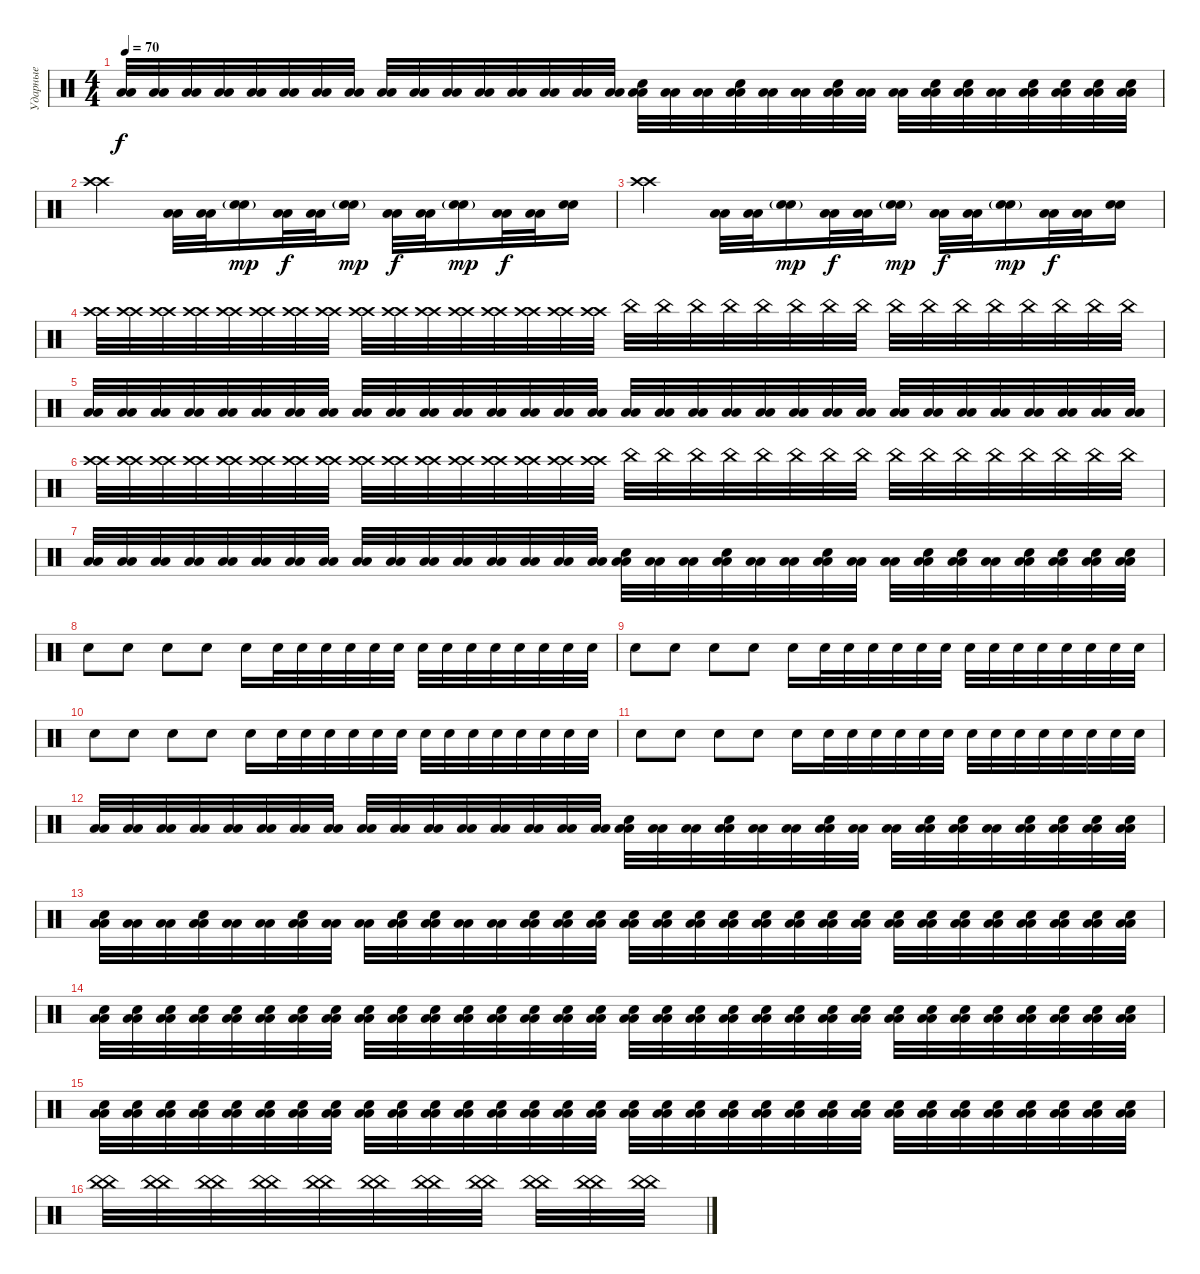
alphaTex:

\track ("Ударные" "Ударные") {instrument percussion}
\staff {score}
\articulation defaults
\ts (4 4)
\tempo 70
\clef neutral
\ks c
("Low Floor Tom (hit)" "Low Floor Tom (hit)").32{dy f} ("Low Floor Tom (hit)" "Low Floor Tom (hit)").32 ("Low Floor Tom (hit)" "Low Floor Tom (hit)").32 ("Low Floor Tom (hit)" "Low Floor Tom (hit)").32 ("Low Floor Tom (hit)" "Low Floor Tom (hit)").32 ("Low Floor Tom (hit)" "Low Floor Tom (hit)").32 ("Low Floor Tom (hit)" "Low Floor Tom (hit)").32 ("Low Floor Tom (hit)" "Low Floor Tom (hit)").32 ("Low Floor Tom (hit)" "Low Floor Tom (hit)").32 ("Low Floor Tom (hit)" "Low Floor Tom (hit)").32 ("Low Floor Tom (hit)" "Low Floor Tom (hit)").32 ("Low Floor Tom (hit)" "Low Floor Tom (hit)").32 ("Low Floor Tom (hit)" "Low Floor Tom (hit)").32 ("Low Floor Tom (hit)" "Low Floor Tom (hit)").32 ("Low Floor Tom (hit)" "Low Floor Tom (hit)").32 ("Low Floor Tom (hit)" "Low Floor Tom (hit)").32 ("Low Floor Tom (hit)" "Low Floor Tom (hit)" "Electric Snare (hit)").32 ("Low Floor Tom (hit)" "Low Floor Tom (hit)").32 ("Low Floor Tom (hit)" "Low Floor Tom (hit)").32 ("Low Floor Tom (hit)" "Low Floor Tom (hit)" "Electric Snare (hit)").32 ("Low Floor Tom (hit)" "Low Floor Tom (hit)").32 ("Low Floor Tom (hit)" "Low Floor Tom (hit)").32 ("Low Floor Tom (hit)" "Low Floor Tom (hit)" "Electric Snare (hit)").32 ("Low Floor Tom (hit)" "Low Floor Tom (hit)").32 ("Low Floor Tom (hit)" "Low Floor Tom (hit)").32 ("Low Floor Tom (hit)" "Low Floor Tom (hit)" "Electric Snare (hit)").32 ("Low Floor Tom (hit)" "Low Floor Tom (hit)" "Electric Snare (hit)").32 ("Low Floor Tom (hit)" "Low Floor Tom (hit)").32 ("Low Floor Tom (hit)" "Low Floor Tom (hit)" "Electric Snare (hit)").32 ("Low Floor Tom (hit)" "Low Floor Tom (hit)" "Electric Snare (hit)").32 ("Low Floor Tom (hit)" "Low Floor Tom (hit)" "Electric Snare (hit)").32 ("Low Floor Tom (hit)" "Low Floor Tom (hit)" "Electric Snare (hit)").32 |
("Crash high (hit)" "Crash high (hit)").2 ("Low Floor Tom (hit)" "Low Floor Tom (hit)").32 ("Low Floor Tom (hit)" "Low Floor Tom (hit)").32 ("Electric Snare (hit)"{g} "Electric Snare (hit)"{g}).16{dy mp} ("Low Floor Tom (hit)" "Low Floor Tom (hit)").32{dy f} ("Low Floor Tom (hit)" "Low Floor Tom (hit)").32 ("Electric Snare (hit)"{g} "Electric Snare (hit)"{g}).16{dy mp} ("Low Floor Tom (hit)" "Low Floor Tom (hit)").32{dy f} ("Low Floor Tom (hit)" "Low Floor Tom (hit)").32 ("Electric Snare (hit)"{g} "Electric Snare (hit)"{g}).16{dy mp} ("Low Floor Tom (hit)" "Low Floor Tom (hit)").32{dy f} ("Low Floor Tom (hit)" "Low Floor Tom (hit)").32 ("Electric Snare (hit)" "Electric Snare (hit)").16 |
("Crash high (hit)" "Crash high (hit)").2 ("Low Floor Tom (hit)" "Low Floor Tom (hit)").32 ("Low Floor Tom (hit)" "Low Floor Tom (hit)").32 ("Electric Snare (hit)"{g} "Electric Snare (hit)"{g}).16{dy mp} ("Low Floor Tom (hit)" "Low Floor Tom (hit)").32{dy f} ("Low Floor Tom (hit)" "Low Floor Tom (hit)").32 ("Electric Snare (hit)"{g} "Electric Snare (hit)"{g}).16{dy mp} ("Low Floor Tom (hit)" "Low Floor Tom (hit)").32{dy f} ("Low Floor Tom (hit)" "Low Floor Tom (hit)").32 ("Electric Snare (hit)"{g} "Electric Snare (hit)"{g}).16{dy mp} ("Low Floor Tom (hit)" "Low Floor Tom (hit)").32{dy f} ("Low Floor Tom (hit)" "Low Floor Tom (hit)").32 ("Electric Snare (hit)" "Electric Snare (hit)").16 |
("Crash high (hit)" "Crash high (hit)").32 ("Crash high (hit)" "Crash high (hit)").32 ("Crash high (hit)" "Crash high (hit)").32 ("Crash high (hit)" "Crash high (hit)").32 ("Crash high (hit)" "Crash high (hit)").32 ("Crash high (hit)" "Crash high (hit)").32 ("Crash high (hit)" "Crash high (hit)").32 ("Crash high (hit)" "Crash high (hit)").32 ("Crash high (hit)" "Crash high (hit)").32 ("Crash high (hit)" "Crash high (hit)").32 ("Crash high (hit)" "Crash high (hit)").32 ("Crash high (hit)" "Crash high (hit)").32 ("Crash high (hit)" "Crash high (hit)").32 ("Crash high (hit)" "Crash high (hit)").32 ("Crash high (hit)" "Crash high (hit)").32 ("Crash high (hit)" "Crash high (hit)").32 "China (hit)".32 "China (hit)".32 "China (hit)".32 "China (hit)".32 "China (hit)".32 "China (hit)".32 "China (hit)".32 "China (hit)".32 "China (hit)".32 "China (hit)".32 "China (hit)".32 "China (hit)".32 "China (hit)".32 "China (hit)".32 "China (hit)".32 "China (hit)".32 |
("Low Floor Tom (hit)" "Low Floor Tom (hit)").32 ("Low Floor Tom (hit)" "Low Floor Tom (hit)").32 ("Low Floor Tom (hit)" "Low Floor Tom (hit)").32 ("Low Floor Tom (hit)" "Low Floor Tom (hit)").32 ("Low Floor Tom (hit)" "Low Floor Tom (hit)").32 ("Low Floor Tom (hit)" "Low Floor Tom (hit)").32 ("Low Floor Tom (hit)" "Low Floor Tom (hit)").32 ("Low Floor Tom (hit)" "Low Floor Tom (hit)").32 ("Low Floor Tom (hit)" "Low Floor Tom (hit)").32 ("Low Floor Tom (hit)" "Low Floor Tom (hit)").32 ("Low Floor Tom (hit)" "Low Floor Tom (hit)").32 ("Low Floor Tom (hit)" "Low Floor Tom (hit)").32 ("Low Floor Tom (hit)" "Low Floor Tom (hit)").32 ("Low Floor Tom (hit)" "Low Floor Tom (hit)").32 ("Low Floor Tom (hit)" "Low Floor Tom (hit)").32 ("Low Floor Tom (hit)" "Low Floor Tom (hit)").32 ("Low Floor Tom (hit)" "Low Floor Tom (hit)").32 ("Low Floor Tom (hit)" "Low Floor Tom (hit)").32 ("Low Floor Tom (hit)" "Low Floor Tom (hit)").32 ("Low Floor Tom (hit)" "Low Floor Tom (hit)").32 ("Low Floor Tom (hit)" "Low Floor Tom (hit)").32 ("Low Floor Tom (hit)" "Low Floor Tom (hit)").32 ("Low Floor Tom (hit)" "Low Floor Tom (hit)").32 ("Low Floor Tom (hit)" "Low Floor Tom (hit)").32 ("Low Floor Tom (hit)" "Low Floor Tom (hit)").32 ("Low Floor Tom (hit)" "Low Floor Tom (hit)").32 ("Low Floor Tom (hit)" "Low Floor Tom (hit)").32 ("Low Floor Tom (hit)" "Low Floor Tom (hit)").32 ("Low Floor Tom (hit)" "Low Floor Tom (hit)").32 ("Low Floor Tom (hit)" "Low Floor Tom (hit)").32 ("Low Floor Tom (hit)" "Low Floor Tom (hit)").32 ("Low Floor Tom (hit)" "Low Floor Tom (hit)").32 |
("Crash high (hit)" "Crash high (hit)").32 ("Crash high (hit)" "Crash high (hit)").32 ("Crash high (hit)" "Crash high (hit)").32 ("Crash high (hit)" "Crash high (hit)").32 ("Crash high (hit)" "Crash high (hit)").32 ("Crash high (hit)" "Crash high (hit)").32 ("Crash high (hit)" "Crash high (hit)").32 ("Crash high (hit)" "Crash high (hit)").32 ("Crash high (hit)" "Crash high (hit)").32 ("Crash high (hit)" "Crash high (hit)").32 ("Crash high (hit)" "Crash high (hit)").32 ("Crash high (hit)" "Crash high (hit)").32 ("Crash high (hit)" "Crash high (hit)").32 ("Crash high (hit)" "Crash high (hit)").32 ("Crash high (hit)" "Crash high (hit)").32 ("Crash high (hit)" "Crash high (hit)").32 "China (hit)".32 "China (hit)".32 "China (hit)".32 "China (hit)".32 "China (hit)".32 "China (hit)".32 "China (hit)".32 "China (hit)".32 "China (hit)".32 "China (hit)".32 "China (hit)".32 "China (hit)".32 "China (hit)".32 "China (hit)".32 "China (hit)".32 "China (hit)".32 |
("Low Floor Tom (hit)" "Low Floor Tom (hit)").32 ("Low Floor Tom (hit)" "Low Floor Tom (hit)").32 ("Low Floor Tom (hit)" "Low Floor Tom (hit)").32 ("Low Floor Tom (hit)" "Low Floor Tom (hit)").32 ("Low Floor Tom (hit)" "Low Floor Tom (hit)").32 ("Low Floor Tom (hit)" "Low Floor Tom (hit)").32 ("Low Floor Tom (hit)" "Low Floor Tom (hit)").32 ("Low Floor Tom (hit)" "Low Floor Tom (hit)").32 ("Low Floor Tom (hit)" "Low Floor Tom (hit)").32 ("Low Floor Tom (hit)" "Low Floor Tom (hit)").32 ("Low Floor Tom (hit)" "Low Floor Tom (hit)").32 ("Low Floor Tom (hit)" "Low Floor Tom (hit)").32 ("Low Floor Tom (hit)" "Low Floor Tom (hit)").32 ("Low Floor Tom (hit)" "Low Floor Tom (hit)").32 ("Low Floor Tom (hit)" "Low Floor Tom (hit)").32 ("Low Floor Tom (hit)" "Low Floor Tom (hit)").32 ("Low Floor Tom (hit)" "Low Floor Tom (hit)" "Electric Snare (hit)").32 ("Low Floor Tom (hit)" "Low Floor Tom (hit)").32 ("Low Floor Tom (hit)" "Low Floor Tom (hit)").32 ("Low Floor Tom (hit)" "Low Floor Tom (hit)" "Electric Snare (hit)").32 ("Low Floor Tom (hit)" "Low Floor Tom (hit)").32 ("Low Floor Tom (hit)" "Low Floor Tom (hit)").32 ("Low Floor Tom (hit)" "Low Floor Tom (hit)" "Electric Snare (hit)").32 ("Low Floor Tom (hit)" "Low Floor Tom (hit)").32 ("Low Floor Tom (hit)" "Low Floor Tom (hit)").32 ("Low Floor Tom (hit)" "Low Floor Tom (hit)" "Electric Snare (hit)").32 ("Low Floor Tom (hit)" "Low Floor Tom (hit)" "Electric Snare (hit)").32 ("Low Floor Tom (hit)" "Low Floor Tom (hit)").32 ("Low Floor Tom (hit)" "Low Floor Tom (hit)" "Electric Snare (hit)").32 ("Low Floor Tom (hit)" "Low Floor Tom (hit)" "Electric Snare (hit)").32 ("Low Floor Tom (hit)" "Low Floor Tom (hit)" "Electric Snare (hit)").32 ("Low Floor Tom (hit)" "Low Floor Tom (hit)" "Electric Snare (hit)").32 |
"Electric Snare (hit)".8 "Electric Snare (hit)".8 "Electric Snare (hit)".8 "Electric Snare (hit)".8 "Electric Snare (hit)".16 "Electric Snare (hit)".32 "Electric Snare (hit)".32 "Electric Snare (hit)".32 "Electric Snare (hit)".32 "Electric Snare (hit)".32 "Electric Snare (hit)".32 "Electric Snare (hit)".32 "Electric Snare (hit)".32 "Electric Snare (hit)".32 "Electric Snare (hit)".32 "Electric Snare (hit)".32 "Electric Snare (hit)".32 "Electric Snare (hit)".32 "Electric Snare (hit)".32 |
"Electric Snare (hit)".8 "Electric Snare (hit)".8 "Electric Snare (hit)".8 "Electric Snare (hit)".8 "Electric Snare (hit)".16 "Electric Snare (hit)".32 "Electric Snare (hit)".32 "Electric Snare (hit)".32 "Electric Snare (hit)".32 "Electric Snare (hit)".32 "Electric Snare (hit)".32 "Electric Snare (hit)".32 "Electric Snare (hit)".32 "Electric Snare (hit)".32 "Electric Snare (hit)".32 "Electric Snare (hit)".32 "Electric Snare (hit)".32 "Electric Snare (hit)".32 "Electric Snare (hit)".32 |
"Electric Snare (hit)".8 "Electric Snare (hit)".8 "Electric Snare (hit)".8 "Electric Snare (hit)".8 "Electric Snare (hit)".16 "Electric Snare (hit)".32 "Electric Snare (hit)".32 "Electric Snare (hit)".32 "Electric Snare (hit)".32 "Electric Snare (hit)".32 "Electric Snare (hit)".32 "Electric Snare (hit)".32 "Electric Snare (hit)".32 "Electric Snare (hit)".32 "Electric Snare (hit)".32 "Electric Snare (hit)".32 "Electric Snare (hit)".32 "Electric Snare (hit)".32 "Electric Snare (hit)".32 |
"Electric Snare (hit)".8 "Electric Snare (hit)".8 "Electric Snare (hit)".8 "Electric Snare (hit)".8 "Electric Snare (hit)".16 "Electric Snare (hit)".32 "Electric Snare (hit)".32 "Electric Snare (hit)".32 "Electric Snare (hit)".32 "Electric Snare (hit)".32 "Electric Snare (hit)".32 "Electric Snare (hit)".32 "Electric Snare (hit)".32 "Electric Snare (hit)".32 "Electric Snare (hit)".32 "Electric Snare (hit)".32 "Electric Snare (hit)".32 "Electric Snare (hit)".32 "Electric Snare (hit)".32 |
("Low Floor Tom (hit)" "Low Floor Tom (hit)").32 ("Low Floor Tom (hit)" "Low Floor Tom (hit)").32 ("Low Floor Tom (hit)" "Low Floor Tom (hit)").32 ("Low Floor Tom (hit)" "Low Floor Tom (hit)").32 ("Low Floor Tom (hit)" "Low Floor Tom (hit)").32 ("Low Floor Tom (hit)" "Low Floor Tom (hit)").32 ("Low Floor Tom (hit)" "Low Floor Tom (hit)").32 ("Low Floor Tom (hit)" "Low Floor Tom (hit)").32 ("Low Floor Tom (hit)" "Low Floor Tom (hit)").32 ("Low Floor Tom (hit)" "Low Floor Tom (hit)").32 ("Low Floor Tom (hit)" "Low Floor Tom (hit)").32 ("Low Floor Tom (hit)" "Low Floor Tom (hit)").32 ("Low Floor Tom (hit)" "Low Floor Tom (hit)").32 ("Low Floor Tom (hit)" "Low Floor Tom (hit)").32 ("Low Floor Tom (hit)" "Low Floor Tom (hit)").32 ("Low Floor Tom (hit)" "Low Floor Tom (hit)").32 ("Low Floor Tom (hit)" "Low Floor Tom (hit)" "Electric Snare (hit)").32 ("Low Floor Tom (hit)" "Low Floor Tom (hit)").32 ("Low Floor Tom (hit)" "Low Floor Tom (hit)").32 ("Low Floor Tom (hit)" "Low Floor Tom (hit)" "Electric Snare (hit)").32 ("Low Floor Tom (hit)" "Low Floor Tom (hit)").32 ("Low Floor Tom (hit)" "Low Floor Tom (hit)").32 ("Low Floor Tom (hit)" "Low Floor Tom (hit)" "Electric Snare (hit)").32 ("Low Floor Tom (hit)" "Low Floor Tom (hit)").32 ("Low Floor Tom (hit)" "Low Floor Tom (hit)").32 ("Low Floor Tom (hit)" "Low Floor Tom (hit)" "Electric Snare (hit)").32 ("Low Floor Tom (hit)" "Low Floor Tom (hit)" "Electric Snare (hit)").32 ("Low Floor Tom (hit)" "Low Floor Tom (hit)").32 ("Low Floor Tom (hit)" "Low Floor Tom (hit)" "Electric Snare (hit)").32 ("Low Floor Tom (hit)" "Low Floor Tom (hit)" "Electric Snare (hit)").32 ("Low Floor Tom (hit)" "Low Floor Tom (hit)" "Electric Snare (hit)").32 ("Low Floor Tom (hit)" "Low Floor Tom (hit)" "Electric Snare (hit)").32 |
("Low Floor Tom (hit)" "Low Floor Tom (hit)" "Electric Snare (hit)").32 ("Low Floor Tom (hit)" "Low Floor Tom (hit)").32 ("Low Floor Tom (hit)" "Low Floor Tom (hit)").32 ("Low Floor Tom (hit)" "Low Floor Tom (hit)" "Electric Snare (hit)").32 ("Low Floor Tom (hit)" "Low Floor Tom (hit)").32 ("Low Floor Tom (hit)" "Low Floor Tom (hit)").32 ("Low Floor Tom (hit)" "Low Floor Tom (hit)" "Electric Snare (hit)").32 ("Low Floor Tom (hit)" "Low Floor Tom (hit)").32 ("Low Floor Tom (hit)" "Low Floor Tom (hit)").32 ("Low Floor Tom (hit)" "Low Floor Tom (hit)" "Electric Snare (hit)").32 ("Low Floor Tom (hit)" "Low Floor Tom (hit)" "Electric Snare (hit)").32 ("Low Floor Tom (hit)" "Low Floor Tom (hit)").32 ("Low Floor Tom (hit)" "Low Floor Tom (hit)").32 ("Low Floor Tom (hit)" "Low Floor Tom (hit)" "Electric Snare (hit)").32 ("Low Floor Tom (hit)" "Low Floor Tom (hit)" "Electric Snare (hit)").32 ("Low Floor Tom (hit)" "Low Floor Tom (hit)" "Electric Snare (hit)").32 ("Low Floor Tom (hit)" "Low Floor Tom (hit)" "Electric Snare (hit)").32 ("Low Floor Tom (hit)" "Low Floor Tom (hit)" "Electric Snare (hit)").32 ("Low Floor Tom (hit)" "Low Floor Tom (hit)" "Electric Snare (hit)").32 ("Low Floor Tom (hit)" "Low Floor Tom (hit)" "Electric Snare (hit)").32 ("Low Floor Tom (hit)" "Low Floor Tom (hit)" "Electric Snare (hit)").32 ("Low Floor Tom (hit)" "Low Floor Tom (hit)" "Electric Snare (hit)").32 ("Low Floor Tom (hit)" "Low Floor Tom (hit)" "Electric Snare (hit)").32 ("Low Floor Tom (hit)" "Low Floor Tom (hit)" "Electric Snare (hit)").32 ("Low Floor Tom (hit)" "Low Floor Tom (hit)" "Electric Snare (hit)").32 ("Low Floor Tom (hit)" "Low Floor Tom (hit)" "Electric Snare (hit)").32 ("Low Floor Tom (hit)" "Low Floor Tom (hit)" "Electric Snare (hit)").32 ("Low Floor Tom (hit)" "Low Floor Tom (hit)" "Electric Snare (hit)").32 ("Low Floor Tom (hit)" "Low Floor Tom (hit)" "Electric Snare (hit)").32 ("Low Floor Tom (hit)" "Low Floor Tom (hit)" "Electric Snare (hit)").32 ("Low Floor Tom (hit)" "Low Floor Tom (hit)" "Electric Snare (hit)").32 ("Low Floor Tom (hit)" "Low Floor Tom (hit)" "Electric Snare (hit)").32 |
("Low Floor Tom (hit)" "Low Floor Tom (hit)" "Electric Snare (hit)").32 ("Low Floor Tom (hit)" "Low Floor Tom (hit)" "Electric Snare (hit)").32 ("Low Floor Tom (hit)" "Low Floor Tom (hit)" "Electric Snare (hit)").32 ("Low Floor Tom (hit)" "Low Floor Tom (hit)" "Electric Snare (hit)").32 ("Low Floor Tom (hit)" "Low Floor Tom (hit)" "Electric Snare (hit)").32 ("Low Floor Tom (hit)" "Low Floor Tom (hit)" "Electric Snare (hit)").32 ("Low Floor Tom (hit)" "Low Floor Tom (hit)" "Electric Snare (hit)").32 ("Low Floor Tom (hit)" "Low Floor Tom (hit)" "Electric Snare (hit)").32 ("Low Floor Tom (hit)" "Low Floor Tom (hit)" "Electric Snare (hit)").32 ("Low Floor Tom (hit)" "Low Floor Tom (hit)" "Electric Snare (hit)").32 ("Low Floor Tom (hit)" "Low Floor Tom (hit)" "Electric Snare (hit)").32 ("Low Floor Tom (hit)" "Low Floor Tom (hit)" "Electric Snare (hit)").32 ("Low Floor Tom (hit)" "Low Floor Tom (hit)" "Electric Snare (hit)").32 ("Low Floor Tom (hit)" "Low Floor Tom (hit)" "Electric Snare (hit)").32 ("Low Floor Tom (hit)" "Low Floor Tom (hit)" "Electric Snare (hit)").32 ("Low Floor Tom (hit)" "Low Floor Tom (hit)" "Electric Snare (hit)").32 ("Low Floor Tom (hit)" "Low Floor Tom (hit)" "Electric Snare (hit)").32 ("Low Floor Tom (hit)" "Low Floor Tom (hit)" "Electric Snare (hit)").32 ("Low Floor Tom (hit)" "Low Floor Tom (hit)" "Electric Snare (hit)").32 ("Low Floor Tom (hit)" "Low Floor Tom (hit)" "Electric Snare (hit)").32 ("Low Floor Tom (hit)" "Low Floor Tom (hit)" "Electric Snare (hit)").32 ("Low Floor Tom (hit)" "Low Floor Tom (hit)" "Electric Snare (hit)").32 ("Low Floor Tom (hit)" "Low Floor Tom (hit)" "Electric Snare (hit)").32 ("Low Floor Tom (hit)" "Low Floor Tom (hit)" "Electric Snare (hit)").32 ("Low Floor Tom (hit)" "Low Floor Tom (hit)" "Electric Snare (hit)").32 ("Low Floor Tom (hit)" "Low Floor Tom (hit)" "Electric Snare (hit)").32 ("Low Floor Tom (hit)" "Low Floor Tom (hit)" "Electric Snare (hit)").32 ("Low Floor Tom (hit)" "Low Floor Tom (hit)" "Electric Snare (hit)").32 ("Low Floor Tom (hit)" "Low Floor Tom (hit)" "Electric Snare (hit)").32 ("Low Floor Tom (hit)" "Low Floor Tom (hit)" "Electric Snare (hit)").32 ("Low Floor Tom (hit)" "Low Floor Tom (hit)" "Electric Snare (hit)").32 ("Low Floor Tom (hit)" "Low Floor Tom (hit)" "Electric Snare (hit)").32 |
("Low Floor Tom (hit)" "Low Floor Tom (hit)" "Electric Snare (hit)").32 ("Low Floor Tom (hit)" "Low Floor Tom (hit)" "Electric Snare (hit)").32 ("Low Floor Tom (hit)" "Low Floor Tom (hit)" "Electric Snare (hit)").32 ("Low Floor Tom (hit)" "Low Floor Tom (hit)" "Electric Snare (hit)").32 ("Low Floor Tom (hit)" "Low Floor Tom (hit)" "Electric Snare (hit)").32 ("Low Floor Tom (hit)" "Low Floor Tom (hit)" "Electric Snare (hit)").32 ("Low Floor Tom (hit)" "Low Floor Tom (hit)" "Electric Snare (hit)").32 ("Low Floor Tom (hit)" "Low Floor Tom (hit)" "Electric Snare (hit)").32 ("Low Floor Tom (hit)" "Low Floor Tom (hit)" "Electric Snare (hit)").32 ("Low Floor Tom (hit)" "Low Floor Tom (hit)" "Electric Snare (hit)").32 ("Low Floor Tom (hit)" "Low Floor Tom (hit)" "Electric Snare (hit)").32 ("Low Floor Tom (hit)" "Low Floor Tom (hit)" "Electric Snare (hit)").32 ("Low Floor Tom (hit)" "Low Floor Tom (hit)" "Electric Snare (hit)").32 ("Low Floor Tom (hit)" "Low Floor Tom (hit)" "Electric Snare (hit)").32 ("Low Floor Tom (hit)" "Low Floor Tom (hit)" "Electric Snare (hit)").32 ("Low Floor Tom (hit)" "Low Floor Tom (hit)" "Electric Snare (hit)").32 ("Low Floor Tom (hit)" "Low Floor Tom (hit)" "Electric Snare (hit)").32 ("Low Floor Tom (hit)" "Low Floor Tom (hit)" "Electric Snare (hit)").32 ("Low Floor Tom (hit)" "Low Floor Tom (hit)" "Electric Snare (hit)").32 ("Low Floor Tom (hit)" "Low Floor Tom (hit)" "Electric Snare (hit)").32 ("Low Floor Tom (hit)" "Low Floor Tom (hit)" "Electric Snare (hit)").32 ("Low Floor Tom (hit)" "Low Floor Tom (hit)" "Electric Snare (hit)").32 ("Low Floor Tom (hit)" "Low Floor Tom (hit)" "Electric Snare (hit)").32 ("Low Floor Tom (hit)" "Low Floor Tom (hit)" "Electric Snare (hit)").32 ("Low Floor Tom (hit)" "Low Floor Tom (hit)" "Electric Snare (hit)").32 ("Low Floor Tom (hit)" "Low Floor Tom (hit)" "Electric Snare (hit)").32 ("Low Floor Tom (hit)" "Low Floor Tom (hit)" "Electric Snare (hit)").32 ("Low Floor Tom (hit)" "Low Floor Tom (hit)" "Electric Snare (hit)").32 ("Low Floor Tom (hit)" "Low Floor Tom (hit)" "Electric Snare (hit)").32 ("Low Floor Tom (hit)" "Low Floor Tom (hit)" "Electric Snare (hit)").32 ("Low Floor Tom (hit)" "Low Floor Tom (hit)" "Electric Snare (hit)").32 ("Low Floor Tom (hit)" "Low Floor Tom (hit)" "Electric Snare (hit)").32 |
("China (hit)" "China (hit)").32 ("China (hit)" "China (hit)").32 ("China (hit)" "China (hit)").32 ("China (hit)" "China (hit)").32 ("China (hit)" "China (hit)").32 ("China (hit)" "China (hit)").32 ("China (hit)" "China (hit)").32 ("China (hit)" "China (hit)").32 ("China (hit)" "China (hit)").32 ("China (hit)" "China (hit)").32 ("China (hit)" "China (hit)").32
